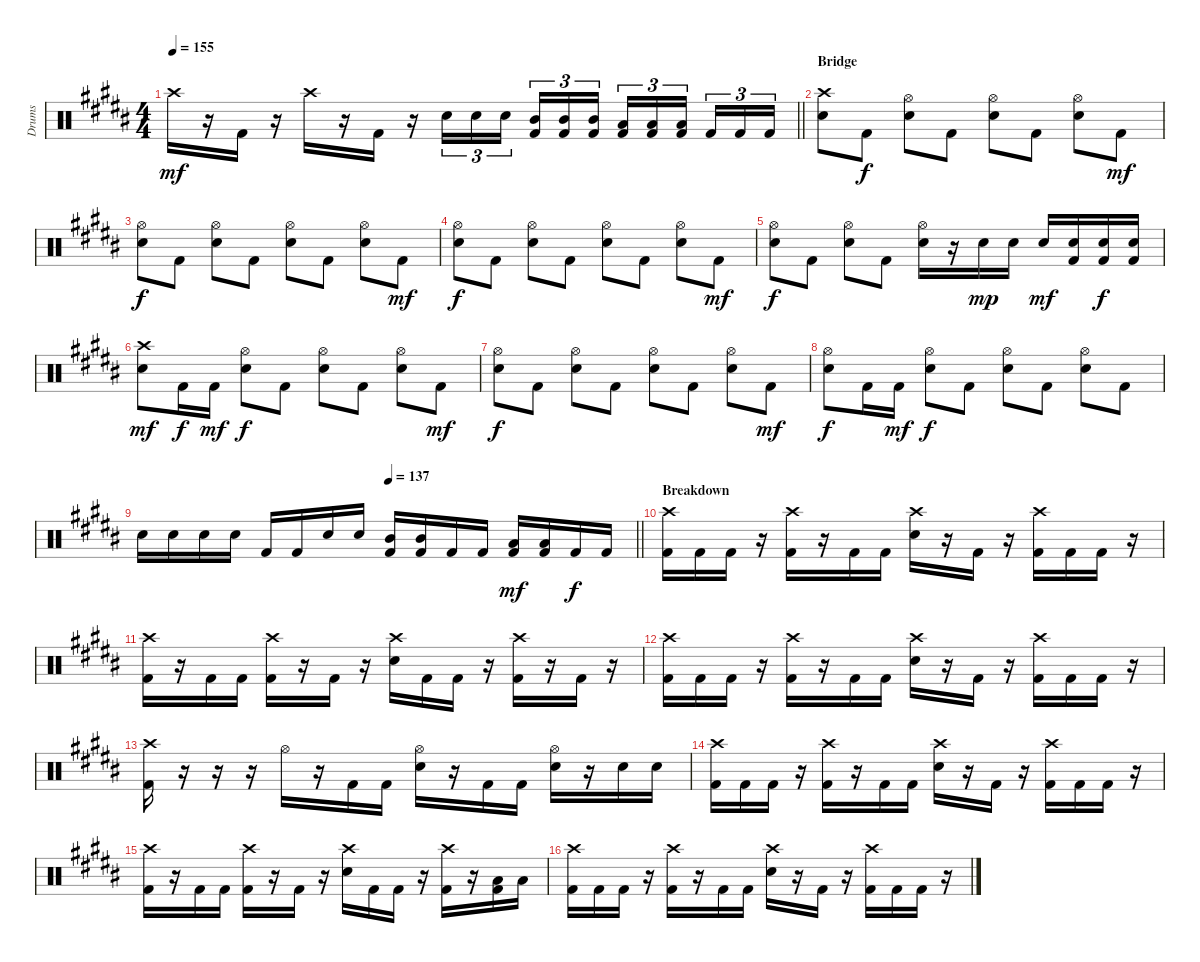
\track ("Drums" "Drums") {instrument percussion}
\staff {score}
\articulation defaults
\ts (4 4)
\tempo 155
\clef neutral
\barLineRight lightlight
\ks g#minor "Crash high (hit)".16{dy mf}
r.16 "Kick (hit) 2".16 r.16 "Crash high (hit)".16 r.16 "Kick (hit) 2".16 r.16 "Electric Snare (hit)".16{tu (3 2)} "Electric Snare (hit)".16{tu (3 2)} "Electric Snare (hit)".16{tu (3 2) beam splitsecondary} ("Mid Tom (hit)" "Kick (hit) 2").16{tu (3 2)} ("Mid Tom (hit)" "Kick (hit) 2").16{tu (3 2)} ("Mid Tom (hit)" "Kick (hit) 2").16{tu (3 2)} ("Low Floor Tom (hit)" "Kick (hit) 2").16{tu (3 2)} ("Low Floor Tom (hit)" "Kick (hit) 2").16{tu (3 2)} ("Low Floor Tom (hit)" "Kick (hit) 2").16{tu (3 2) beam splitsecondary} "Kick (hit) 2".16{tu (3 2)} "Kick (hit) 2".16{tu (3 2)} "Kick (hit) 2".16{tu (3 2)} |
\section ("" "Bridge")
("Crash high (hit)" "Electric Snare (hit)").8 "Kick (hit) 2".8{dy f} ("Hi-Hat (open)" "Electric Snare (hit)").8 "Kick (hit) 2".8 ("Hi-Hat (open)" "Electric Snare (hit)").8 "Kick (hit) 2".8 ("Hi-Hat (open)" "Electric Snare (hit)").8 "Kick (hit) 2".8{dy mf} |
("Hi-Hat (open)" "Electric Snare (hit)").8{dy f} "Kick (hit) 2".8 ("Hi-Hat (open)" "Electric Snare (hit)").8 "Kick (hit) 2".8 ("Hi-Hat (open)" "Electric Snare (hit)").8 "Kick (hit) 2".8 ("Hi-Hat (open)" "Electric Snare (hit)").8 "Kick (hit) 2".8{dy mf} |
("Hi-Hat (open)" "Electric Snare (hit)").8{dy f} "Kick (hit) 2".8 ("Hi-Hat (open)" "Electric Snare (hit)").8 "Kick (hit) 2".8 ("Hi-Hat (open)" "Electric Snare (hit)").8 "Kick (hit) 2".8 ("Hi-Hat (open)" "Electric Snare (hit)").8 "Kick (hit) 2".8{dy mf} |
("Hi-Hat (open)" "Electric Snare (hit)").8{dy f} "Kick (hit) 2".8 ("Hi-Hat (open)" "Electric Snare (hit)").8 "Kick (hit) 2".8 ("Hi-Hat (open)" "Electric Snare (hit)").16 r.16 "Electric Snare (hit)".16{dy mp} "Electric Snare (hit)".16 "Electric Snare (hit)".16{dy mf} ("Electric Snare (hit)" "Kick (hit) 2").16 ("Electric Snare (hit)" "Kick (hit) 2").16{dy f} ("Electric Snare (hit)" "Kick (hit) 2").16 |
("Crash high (hit)" "Electric Snare (hit)").8{dy mf} "Kick (hit) 2".16{dy f} "Kick (hit) 2".16{dy mf} ("Hi-Hat (open)" "Electric Snare (hit)").8{dy f} "Kick (hit) 2".8 ("Hi-Hat (open)" "Electric Snare (hit)").8 "Kick (hit) 2".8 ("Hi-Hat (open)" "Electric Snare (hit)").8 "Kick (hit) 2".8{dy mf} |
("Hi-Hat (open)" "Electric Snare (hit)").8{dy f} "Kick (hit) 2".8 ("Hi-Hat (open)" "Electric Snare (hit)").8 "Kick (hit) 2".8 ("Hi-Hat (open)" "Electric Snare (hit)").8 "Kick (hit) 2".8 ("Hi-Hat (open)" "Electric Snare (hit)").8 "Kick (hit) 2".8{dy mf} |
("Hi-Hat (open)" "Electric Snare (hit)").8{dy f} "Kick (hit) 2".16 "Kick (hit) 2".16{dy mf} ("Hi-Hat (open)" "Electric Snare (hit)").8{dy f} "Kick (hit) 2".8 ("Hi-Hat (open)" "Electric Snare (hit)").8 "Kick (hit) 2".8 ("Hi-Hat (open)" "Electric Snare (hit)").8 "Kick (hit) 2".8 |
\tempo (137 0.5)
\barLineRight lightlight "Electric Snare (hit)".16 "Electric Snare (hit)".16 "Electric Snare (hit)".16 "Electric Snare (hit)".16 "Kick (hit) 2".16 "Kick (hit) 2".16 "Electric Snare (hit)".16 "Electric Snare (hit)".16
("Mid Tom (hit)" "Kick (hit) 2").16 ("Mid Tom (hit)" "Kick (hit) 2").16 "Kick (hit) 2".16 "Kick (hit) 2".16 ("Low Floor Tom (hit)" "Kick (hit) 2").16{dy mf} ("Low Floor Tom (hit)" "Kick (hit) 2").16 "Kick (hit) 2".16{dy f} "Kick (hit) 2".16 |
\section ("" "Breakdown")
("Crash high (hit)" "Kick (hit) 2").16 "Kick (hit) 2".16 "Kick (hit) 2".16 r.16 ("Crash high (hit)" "Kick (hit) 2").16 r.16 "Kick (hit) 2".16 "Kick (hit) 2".16 ("Crash high (hit)" "Electric Snare (hit)").16 r.16 "Kick (hit) 2".16 r.16 ("Crash high (hit)" "Kick (hit) 2").16 "Kick (hit) 2".16 "Kick (hit) 2".16 r.16 |
("Crash high (hit)" "Kick (hit) 2").16 r.16 "Kick (hit) 2".16 "Kick (hit) 2".16 ("Crash high (hit)" "Kick (hit) 2").16 r.16 "Kick (hit) 2".16 r.16 ("Crash high (hit)" "Electric Snare (hit)").16 "Kick (hit) 2".16 "Kick (hit) 2".16 r.16 ("Crash high (hit)" "Kick (hit) 2").16 r.16 "Kick (hit) 2".16 r.16 |
("Crash high (hit)" "Kick (hit) 2").16 "Kick (hit) 2".16 "Kick (hit) 2".16 r.16 ("Crash high (hit)" "Kick (hit) 2").16 r.16 "Kick (hit) 2".16 "Kick (hit) 2".16 ("Crash high (hit)" "Electric Snare (hit)").16 r.16 "Kick (hit) 2".16 r.16 ("Crash high (hit)" "Kick (hit) 2").16 "Kick (hit) 2".16 "Kick (hit) 2".16 r.16 |
("Crash high (hit)" "Kick (hit) 2").16 r.16 r.16 r.16 "Hi-Hat (open)".16 r.16 "Kick (hit) 2".16 "Kick (hit) 2".16 ("Hi-Hat (open)" "Electric Snare (hit)").16 r.16 "Kick (hit) 2".16 "Kick (hit) 2".16 ("Hi-Hat (open)" "Electric Snare (hit)").16 r.16 "Electric Snare (hit)".16 "Electric Snare (hit)".16 |
("Crash high (hit)" "Kick (hit) 2").16 "Kick (hit) 2".16 "Kick (hit) 2".16 r.16 ("Crash high (hit)" "Kick (hit) 2").16 r.16 "Kick (hit) 2".16 "Kick (hit) 2".16 ("Crash high (hit)" "Electric Snare (hit)").16 r.16 "Kick (hit) 2".16 r.16 ("Crash high (hit)" "Kick (hit) 2").16 "Kick (hit) 2".16 "Kick (hit) 2".16 r.16 |
("Crash high (hit)" "Kick (hit) 2").16 r.16 "Kick (hit) 2".16 "Kick (hit) 2".16 ("Crash high (hit)" "Kick (hit) 2").16 r.16 "Kick (hit) 2".16 r.16 ("Crash high (hit)" "Electric Snare (hit)").16 "Kick (hit) 2".16 "Kick (hit) 2".16 r.16 ("Crash high (hit)" "Kick (hit) 2").16 r.16 ("Low Floor Tom (hit)" "Kick (hit) 2").16 "Low Floor Tom (hit)".16 |
("Crash high (hit)" "Kick (hit) 2").16 "Kick (hit) 2".16 "Kick (hit) 2".16 r.16 ("Crash high (hit)" "Kick (hit) 2").16 r.16 "Kick (hit) 2".16 "Kick (hit) 2".16 ("Crash high (hit)" "Electric Snare (hit)").16 r.16 "Kick (hit) 2".16 r.16 ("Crash high (hit)" "Kick (hit) 2").16 "Kick (hit) 2".16 "Kick (hit) 2".16 r.16
